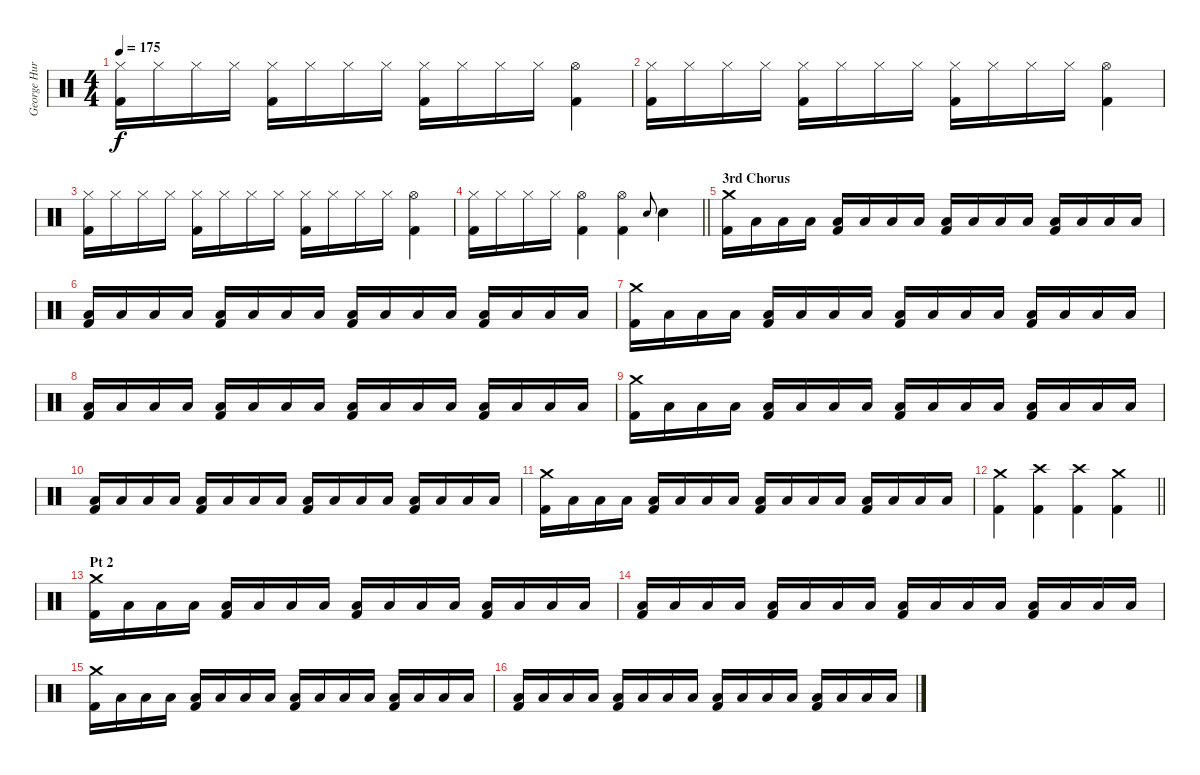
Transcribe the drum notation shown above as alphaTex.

\track ("George Hurley [Drums]" "George Hur") {instrument percussion}
\staff {score}
\articulation defaults
\ts (4 4)
\tempo 175
\clef neutral
\ks c
("Hi-Hat (closed)" "Kick (hit) 2").16{dy f} "Hi-Hat (closed)".16 "Hi-Hat (closed)".16 "Hi-Hat (closed)".16 ("Hi-Hat (closed)" "Kick (hit) 2").16 "Hi-Hat (closed)".16 "Hi-Hat (closed)".16 "Hi-Hat (closed)".16 ("Hi-Hat (closed)" "Kick (hit) 2").16 "Hi-Hat (closed)".16 "Hi-Hat (closed)".16 "Hi-Hat (closed)".16 ("Hi-Hat (open)" "Kick (hit) 2").4 |
("Hi-Hat (closed)" "Kick (hit) 2").16 "Hi-Hat (closed)".16 "Hi-Hat (closed)".16 "Hi-Hat (closed)".16 ("Hi-Hat (closed)" "Kick (hit) 2").16 "Hi-Hat (closed)".16 "Hi-Hat (closed)".16 "Hi-Hat (closed)".16 ("Hi-Hat (closed)" "Kick (hit) 2").16 "Hi-Hat (closed)".16 "Hi-Hat (closed)".16 "Hi-Hat (closed)".16 ("Hi-Hat (open)" "Kick (hit) 2").4 |
("Hi-Hat (closed)" "Kick (hit) 2").16 "Hi-Hat (closed)".16 "Hi-Hat (closed)".16 "Hi-Hat (closed)".16 ("Hi-Hat (closed)" "Kick (hit) 2").16 "Hi-Hat (closed)".16 "Hi-Hat (closed)".16 "Hi-Hat (closed)".16 ("Hi-Hat (closed)" "Kick (hit) 2").16 "Hi-Hat (closed)".16 "Hi-Hat (closed)".16 "Hi-Hat (closed)".16 ("Hi-Hat (open)" "Kick (hit) 2").4 |
\barLineRight lightlight
("Hi-Hat (closed)" "Kick (hit) 2").16 "Hi-Hat (closed)".16 "Hi-Hat (closed)".16 "Hi-Hat (closed)".16 ("Hi-Hat (open)" "Kick (hit) 2").4 ("Hi-Hat (open)" "Kick (hit) 2").4 "Electric Snare (hit)".8{gr onbeat} "Electric Snare (hit)".4 |
\section ("" "3rd Chorus")
("Crash medium (hit)" "Kick (hit) 2").16 "Low Tom (hit)".16 "Low Tom (hit)".16 "Low Tom (hit)".16 ("Low Tom (hit)" "Kick (hit) 2").16 "Low Tom (hit)".16 "Low Tom (hit)".16 "Low Tom (hit)".16 ("Low Tom (hit)" "Kick (hit) 2").16 "Low Tom (hit)".16 "Low Tom (hit)".16 "Low Tom (hit)".16 ("Low Tom (hit)" "Kick (hit) 2").16 "Low Tom (hit)".16 "Low Tom (hit)".16 "Low Tom (hit)".16 |
("Low Tom (hit)" "Kick (hit) 2").16 "Low Tom (hit)".16 "Low Tom (hit)".16 "Low Tom (hit)".16 ("Low Tom (hit)" "Kick (hit) 2").16 "Low Tom (hit)".16 "Low Tom (hit)".16 "Low Tom (hit)".16 ("Low Tom (hit)" "Kick (hit) 2").16 "Low Tom (hit)".16 "Low Tom (hit)".16 "Low Tom (hit)".16 ("Low Tom (hit)" "Kick (hit) 2").16 "Low Tom (hit)".16 "Low Tom (hit)".16 "Low Tom (hit)".16 |
("Crash medium (hit)" "Kick (hit) 2").16 "Low Tom (hit)".16 "Low Tom (hit)".16 "Low Tom (hit)".16 ("Low Tom (hit)" "Kick (hit) 2").16 "Low Tom (hit)".16 "Low Tom (hit)".16 "Low Tom (hit)".16 ("Low Tom (hit)" "Kick (hit) 2").16 "Low Tom (hit)".16 "Low Tom (hit)".16 "Low Tom (hit)".16 ("Low Tom (hit)" "Kick (hit) 2").16 "Low Tom (hit)".16 "Low Tom (hit)".16 "Low Tom (hit)".16 |
("Low Tom (hit)" "Kick (hit) 2").16 "Low Tom (hit)".16 "Low Tom (hit)".16 "Low Tom (hit)".16 ("Low Tom (hit)" "Kick (hit) 2").16 "Low Tom (hit)".16 "Low Tom (hit)".16 "Low Tom (hit)".16 ("Low Tom (hit)" "Kick (hit) 2").16 "Low Tom (hit)".16 "Low Tom (hit)".16 "Low Tom (hit)".16 ("Low Tom (hit)" "Kick (hit) 2").16 "Low Tom (hit)".16 "Low Tom (hit)".16 "Low Tom (hit)".16 |
("Crash medium (hit)" "Kick (hit) 2").16 "Low Tom (hit)".16 "Low Tom (hit)".16 "Low Tom (hit)".16 ("Low Tom (hit)" "Kick (hit) 2").16 "Low Tom (hit)".16 "Low Tom (hit)".16 "Low Tom (hit)".16 ("Low Tom (hit)" "Kick (hit) 2").16 "Low Tom (hit)".16 "Low Tom (hit)".16 "Low Tom (hit)".16 ("Low Tom (hit)" "Kick (hit) 2").16 "Low Tom (hit)".16 "Low Tom (hit)".16 "Low Tom (hit)".16 |
("Low Tom (hit)" "Kick (hit) 2").16 "Low Tom (hit)".16 "Low Tom (hit)".16 "Low Tom (hit)".16 ("Low Tom (hit)" "Kick (hit) 2").16 "Low Tom (hit)".16 "Low Tom (hit)".16 "Low Tom (hit)".16 ("Low Tom (hit)" "Kick (hit) 2").16 "Low Tom (hit)".16 "Low Tom (hit)".16 "Low Tom (hit)".16 ("Low Tom (hit)" "Kick (hit) 2").16 "Low Tom (hit)".16 "Low Tom (hit)".16 "Low Tom (hit)".16 |
("Crash medium (hit)" "Kick (hit) 2").16 "Low Tom (hit)".16 "Low Tom (hit)".16 "Low Tom (hit)".16 ("Low Tom (hit)" "Kick (hit) 2").16 "Low Tom (hit)".16 "Low Tom (hit)".16 "Low Tom (hit)".16 ("Low Tom (hit)" "Kick (hit) 2").16 "Low Tom (hit)".16 "Low Tom (hit)".16 "Low Tom (hit)".16 ("Low Tom (hit)" "Kick (hit) 2").16 "Low Tom (hit)".16 "Low Tom (hit)".16 "Low Tom (hit)".16 |
\barLineRight lightlight
("Crash medium (hit)" "Kick (hit) 2").4 ("Crash high (hit)" "Kick (hit) 2").4 ("Crash high (hit)" "Kick (hit) 2").4 ("Crash medium (hit)" "Kick (hit) 2").4 |
\section ("" "Pt 2")
("Crash medium (hit)" "Kick (hit) 2").16 "Low Tom (hit)".16 "Low Tom (hit)".16 "Low Tom (hit)".16 ("Low Tom (hit)" "Kick (hit) 2").16 "Low Tom (hit)".16 "Low Tom (hit)".16 "Low Tom (hit)".16 ("Low Tom (hit)" "Kick (hit) 2").16 "Low Tom (hit)".16 "Low Tom (hit)".16 "Low Tom (hit)".16 ("Low Tom (hit)" "Kick (hit) 2").16 "Low Tom (hit)".16 "Low Tom (hit)".16 "Low Tom (hit)".16 |
("Low Tom (hit)" "Kick (hit) 2").16 "Low Tom (hit)".16 "Low Tom (hit)".16 "Low Tom (hit)".16 ("Low Tom (hit)" "Kick (hit) 2").16 "Low Tom (hit)".16 "Low Tom (hit)".16 "Low Tom (hit)".16 ("Low Tom (hit)" "Kick (hit) 2").16 "Low Tom (hit)".16 "Low Tom (hit)".16 "Low Tom (hit)".16 ("Low Tom (hit)" "Kick (hit) 2").16 "Low Tom (hit)".16 "Low Tom (hit)".16 "Low Tom (hit)".16 |
("Crash medium (hit)" "Kick (hit) 2").16 "Low Tom (hit)".16 "Low Tom (hit)".16 "Low Tom (hit)".16 ("Low Tom (hit)" "Kick (hit) 2").16 "Low Tom (hit)".16 "Low Tom (hit)".16 "Low Tom (hit)".16 ("Low Tom (hit)" "Kick (hit) 2").16 "Low Tom (hit)".16 "Low Tom (hit)".16 "Low Tom (hit)".16 ("Low Tom (hit)" "Kick (hit) 2").16 "Low Tom (hit)".16 "Low Tom (hit)".16 "Low Tom (hit)".16 |
("Low Tom (hit)" "Kick (hit) 2").16 "Low Tom (hit)".16 "Low Tom (hit)".16 "Low Tom (hit)".16 ("Low Tom (hit)" "Kick (hit) 2").16 "Low Tom (hit)".16 "Low Tom (hit)".16 "Low Tom (hit)".16 ("Low Tom (hit)" "Kick (hit) 2").16 "Low Tom (hit)".16 "Low Tom (hit)".16 "Low Tom (hit)".16 ("Low Tom (hit)" "Kick (hit) 2").16 "Low Tom (hit)".16 "Low Tom (hit)".16 "Low Tom (hit)".16
